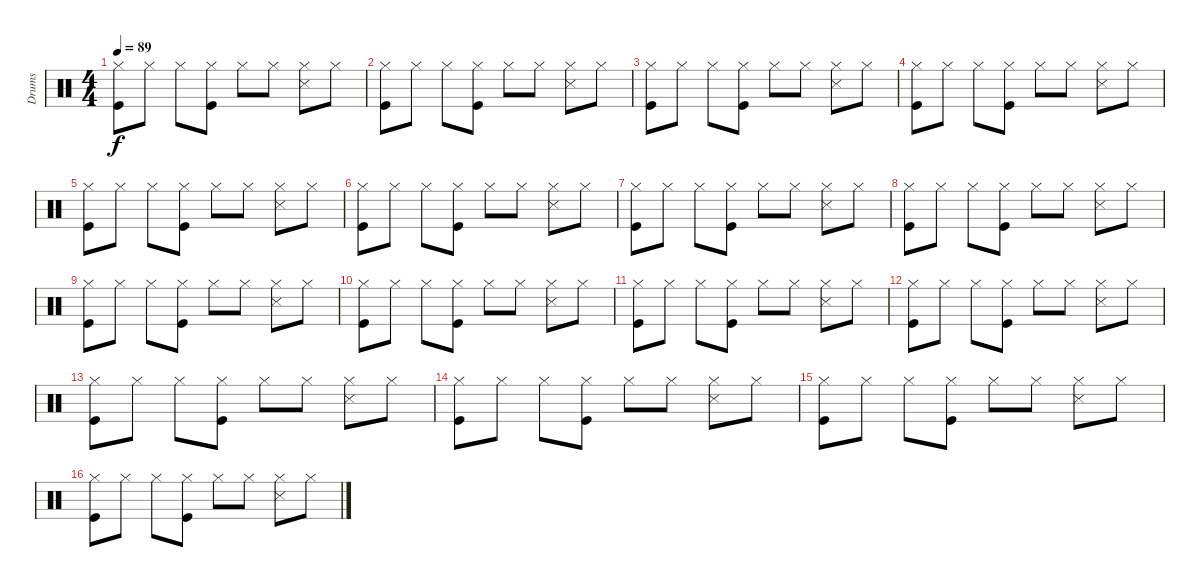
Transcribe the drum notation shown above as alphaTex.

\track ("Drums" "Drums") {instrument percussion}
\staff {score}
\articulation defaults
\ts (4 4)
\tempo 89
\clef neutral
\ks c
("Hi-Hat (closed)" "Kick (hit)").8{dy f} "Hi-Hat (closed)".8 "Hi-Hat (closed)".8 ("Hi-Hat (closed)" "Kick (hit)").8 "Hi-Hat (closed)".8 "Hi-Hat (closed)".8 ("Hi-Hat (closed)" "Snare (side stick) 3").8 "Hi-Hat (closed)".8 |
("Hi-Hat (closed)" "Kick (hit)").8 "Hi-Hat (closed)".8 "Hi-Hat (closed)".8 ("Hi-Hat (closed)" "Kick (hit)").8 "Hi-Hat (closed)".8 "Hi-Hat (closed)".8 ("Hi-Hat (closed)" "Snare (side stick) 3").8 "Hi-Hat (closed)".8 |
("Hi-Hat (closed)" "Kick (hit)").8 "Hi-Hat (closed)".8 "Hi-Hat (closed)".8 ("Hi-Hat (closed)" "Kick (hit)").8 "Hi-Hat (closed)".8 "Hi-Hat (closed)".8 ("Hi-Hat (closed)" "Snare (side stick) 3").8 "Hi-Hat (closed)".8 |
("Hi-Hat (closed)" "Kick (hit)").8 "Hi-Hat (closed)".8 "Hi-Hat (closed)".8 ("Hi-Hat (closed)" "Kick (hit)").8 "Hi-Hat (closed)".8 "Hi-Hat (closed)".8 ("Hi-Hat (closed)" "Snare (side stick) 3").8 "Hi-Hat (closed)".8 |
("Hi-Hat (closed)" "Kick (hit)").8 "Hi-Hat (closed)".8 "Hi-Hat (closed)".8 ("Hi-Hat (closed)" "Kick (hit)").8 "Hi-Hat (closed)".8 "Hi-Hat (closed)".8 ("Hi-Hat (closed)" "Snare (side stick) 3").8 "Hi-Hat (closed)".8 |
("Hi-Hat (closed)" "Kick (hit)").8 "Hi-Hat (closed)".8 "Hi-Hat (closed)".8 ("Hi-Hat (closed)" "Kick (hit)").8 "Hi-Hat (closed)".8 "Hi-Hat (closed)".8 ("Hi-Hat (closed)" "Snare (side stick) 3").8 "Hi-Hat (closed)".8 |
("Hi-Hat (closed)" "Kick (hit)").8 "Hi-Hat (closed)".8 "Hi-Hat (closed)".8 ("Hi-Hat (closed)" "Kick (hit)").8 "Hi-Hat (closed)".8 "Hi-Hat (closed)".8 ("Hi-Hat (closed)" "Snare (side stick) 3").8 "Hi-Hat (closed)".8 |
("Hi-Hat (closed)" "Kick (hit)").8 "Hi-Hat (closed)".8 "Hi-Hat (closed)".8 ("Hi-Hat (closed)" "Kick (hit)").8 "Hi-Hat (closed)".8 "Hi-Hat (closed)".8 ("Hi-Hat (closed)" "Snare (side stick) 3").8 "Hi-Hat (closed)".8 |
("Hi-Hat (closed)" "Kick (hit)").8 "Hi-Hat (closed)".8 "Hi-Hat (closed)".8 ("Hi-Hat (closed)" "Kick (hit)").8 "Hi-Hat (closed)".8 "Hi-Hat (closed)".8 ("Hi-Hat (closed)" "Snare (side stick) 3").8 "Hi-Hat (closed)".8 |
("Hi-Hat (closed)" "Kick (hit)").8 "Hi-Hat (closed)".8 "Hi-Hat (closed)".8 ("Hi-Hat (closed)" "Kick (hit)").8 "Hi-Hat (closed)".8 "Hi-Hat (closed)".8 ("Hi-Hat (closed)" "Snare (side stick) 3").8 "Hi-Hat (closed)".8 |
("Hi-Hat (closed)" "Kick (hit)").8 "Hi-Hat (closed)".8 "Hi-Hat (closed)".8 ("Hi-Hat (closed)" "Kick (hit)").8 "Hi-Hat (closed)".8 "Hi-Hat (closed)".8 ("Hi-Hat (closed)" "Snare (side stick) 3").8 "Hi-Hat (closed)".8 |
("Hi-Hat (closed)" "Kick (hit)").8 "Hi-Hat (closed)".8 "Hi-Hat (closed)".8 ("Hi-Hat (closed)" "Kick (hit)").8 "Hi-Hat (closed)".8 "Hi-Hat (closed)".8 ("Hi-Hat (closed)" "Snare (side stick) 3").8 "Hi-Hat (closed)".8 |
("Hi-Hat (closed)" "Kick (hit)").8 "Hi-Hat (closed)".8 "Hi-Hat (closed)".8 ("Hi-Hat (closed)" "Kick (hit)").8 "Hi-Hat (closed)".8 "Hi-Hat (closed)".8 ("Hi-Hat (closed)" "Snare (side stick) 3").8 "Hi-Hat (closed)".8 |
("Hi-Hat (closed)" "Kick (hit)").8 "Hi-Hat (closed)".8 "Hi-Hat (closed)".8 ("Hi-Hat (closed)" "Kick (hit)").8 "Hi-Hat (closed)".8 "Hi-Hat (closed)".8 ("Hi-Hat (closed)" "Snare (side stick) 3").8 "Hi-Hat (closed)".8 |
("Hi-Hat (closed)" "Kick (hit)").8 "Hi-Hat (closed)".8 "Hi-Hat (closed)".8 ("Hi-Hat (closed)" "Kick (hit)").8 "Hi-Hat (closed)".8 "Hi-Hat (closed)".8 ("Hi-Hat (closed)" "Snare (side stick) 3").8 "Hi-Hat (closed)".8 |
("Hi-Hat (closed)" "Kick (hit)").8 "Hi-Hat (closed)".8 "Hi-Hat (closed)".8 ("Hi-Hat (closed)" "Kick (hit)").8 "Hi-Hat (closed)".8 "Hi-Hat (closed)".8 ("Hi-Hat (closed)" "Snare (side stick) 3").8 "Hi-Hat (closed)".8
